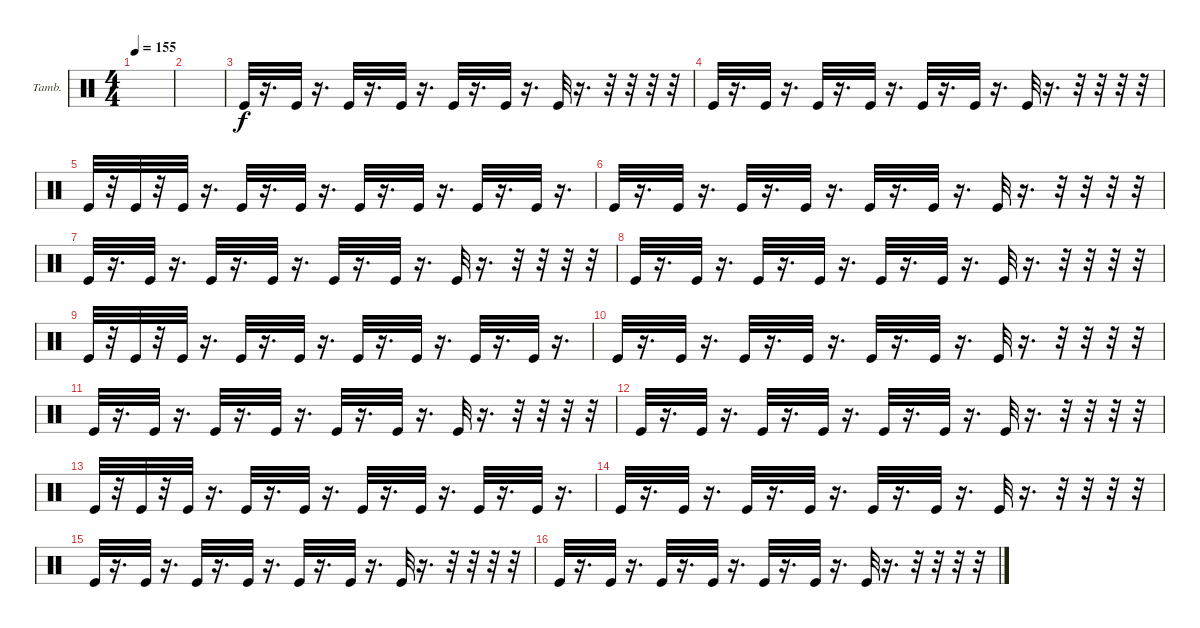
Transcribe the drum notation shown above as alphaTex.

\bracketExtendMode groupsimilarinstruments
\firstSystemTrackNameOrientation horizontal
\otherSystemsTrackNameOrientation horizontal
\track ("Е. Кулаков" "Tamb.") {instrument percussion}
\staff {score}
\articulation defaults
\ts (4 4)
\tempo 155
\clef neutral
\ks c
|
|
"Kick (hit)".32 r.16{d} "Kick (hit)".32 r.16{d} "Kick (hit)".32 r.16{d} "Kick (hit)".32 r.16{d} "Kick (hit)".32 r.16{d} "Kick (hit)".32 r.16{d} "Kick (hit)".32 r.16{d} r.32 r.32 r.32 r.32 |
"Kick (hit)".32 r.16{d} "Kick (hit)".32 r.16{d} "Kick (hit)".32 r.16{d} "Kick (hit)".32 r.16{d} "Kick (hit)".32 r.16{d} "Kick (hit)".32 r.16{d} "Kick (hit)".32 r.16{d} r.32 r.32 r.32 r.32 |
"Kick (hit)".32 r.32 "Kick (hit)".32 r.32 "Kick (hit)".32 r.16{d} "Kick (hit)".32 r.16{d} "Kick (hit)".32 r.16{d} "Kick (hit)".32 r.16{d} "Kick (hit)".32 r.16{d} "Kick (hit)".32 r.16{d} "Kick (hit)".32 r.16{d} |
"Kick (hit)".32 r.16{d} "Kick (hit)".32 r.16{d} "Kick (hit)".32 r.16{d} "Kick (hit)".32 r.16{d} "Kick (hit)".32 r.16{d} "Kick (hit)".32 r.16{d} "Kick (hit)".32 r.16{d} r.32 r.32 r.32 r.32 |
"Kick (hit)".32 r.16{d} "Kick (hit)".32 r.16{d} "Kick (hit)".32 r.16{d} "Kick (hit)".32 r.16{d} "Kick (hit)".32 r.16{d} "Kick (hit)".32 r.16{d} "Kick (hit)".32 r.16{d} r.32 r.32 r.32 r.32 |
"Kick (hit)".32 r.16{d} "Kick (hit)".32 r.16{d} "Kick (hit)".32 r.16{d} "Kick (hit)".32 r.16{d} "Kick (hit)".32 r.16{d} "Kick (hit)".32 r.16{d} "Kick (hit)".32 r.16{d} r.32 r.32 r.32 r.32 |
"Kick (hit)".32 r.32 "Kick (hit)".32 r.32 "Kick (hit)".32 r.16{d} "Kick (hit)".32 r.16{d} "Kick (hit)".32 r.16{d} "Kick (hit)".32 r.16{d} "Kick (hit)".32 r.16{d} "Kick (hit)".32 r.16{d} "Kick (hit)".32 r.16{d} |
"Kick (hit)".32 r.16{d} "Kick (hit)".32 r.16{d} "Kick (hit)".32 r.16{d} "Kick (hit)".32 r.16{d} "Kick (hit)".32 r.16{d} "Kick (hit)".32 r.16{d} "Kick (hit)".32 r.16{d} r.32 r.32 r.32 r.32 |
"Kick (hit)".32 r.16{d} "Kick (hit)".32 r.16{d} "Kick (hit)".32 r.16{d} "Kick (hit)".32 r.16{d} "Kick (hit)".32 r.16{d} "Kick (hit)".32 r.16{d} "Kick (hit)".32 r.16{d} r.32 r.32 r.32 r.32 |
"Kick (hit)".32 r.16{d} "Kick (hit)".32 r.16{d} "Kick (hit)".32 r.16{d} "Kick (hit)".32 r.16{d} "Kick (hit)".32 r.16{d} "Kick (hit)".32 r.16{d} "Kick (hit)".32 r.16{d} r.32 r.32 r.32 r.32 |
"Kick (hit)".32 r.32 "Kick (hit)".32 r.32 "Kick (hit)".32 r.16{d} "Kick (hit)".32 r.16{d} "Kick (hit)".32 r.16{d} "Kick (hit)".32 r.16{d} "Kick (hit)".32 r.16{d} "Kick (hit)".32 r.16{d} "Kick (hit)".32 r.16{d} |
"Kick (hit)".32 r.16{d} "Kick (hit)".32 r.16{d} "Kick (hit)".32 r.16{d} "Kick (hit)".32 r.16{d} "Kick (hit)".32 r.16{d} "Kick (hit)".32 r.16{d} "Kick (hit)".32 r.16{d} r.32 r.32 r.32 r.32 |
"Kick (hit)".32 r.16{d} "Kick (hit)".32 r.16{d} "Kick (hit)".32 r.16{d} "Kick (hit)".32 r.16{d} "Kick (hit)".32 r.16{d} "Kick (hit)".32 r.16{d} "Kick (hit)".32 r.16{d} r.32 r.32 r.32 r.32 |
"Kick (hit)".32 r.16{d} "Kick (hit)".32 r.16{d} "Kick (hit)".32 r.16{d} "Kick (hit)".32 r.16{d} "Kick (hit)".32 r.16{d} "Kick (hit)".32 r.16{d} "Kick (hit)".32 r.16{d} r.32 r.32 r.32 r.32
